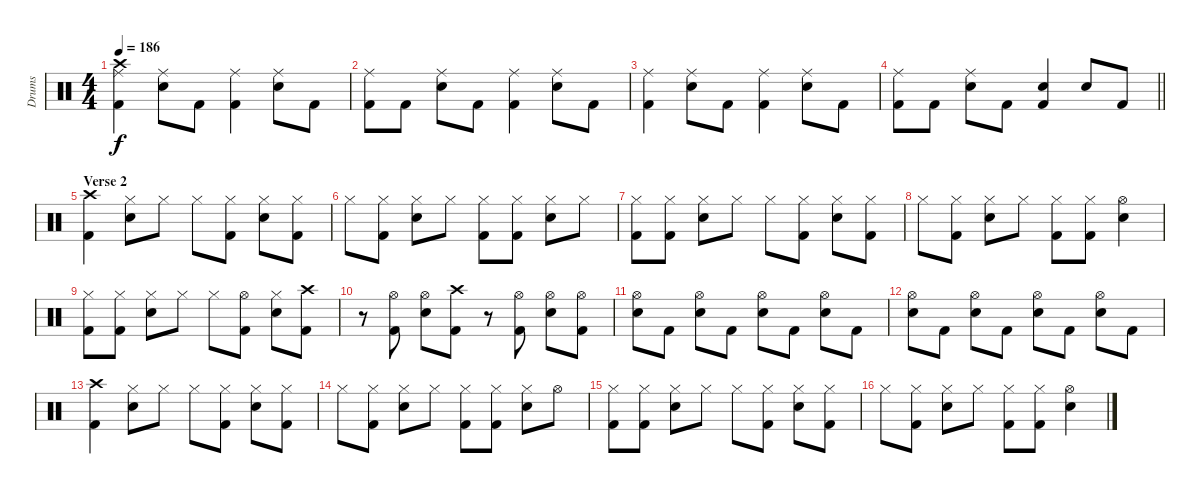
\track ("Drums" "Drums") {instrument percussion}
\staff {score}
\articulation defaults
\ts (4 4)
\tempo 186
\clef neutral
\ks c
("Crash high (hit)" "Ride (middle)" "Kick (hit) 2").4{dy f} ("Ride (middle)" "Snare (hit) 2").8 "Kick (hit) 2".8 ("Ride (middle)" "Kick (hit) 2").4 ("Ride (middle)" "Snare (hit) 2").8 "Kick (hit) 2".8 |
("Ride (middle)" "Kick (hit) 2").8 "Kick (hit) 2".8 ("Ride (middle)" "Snare (hit) 2").8 "Kick (hit) 2".8 ("Ride (middle)" "Kick (hit) 2").4 ("Ride (middle)" "Snare (hit) 2").8 "Kick (hit) 2".8 |
("Ride (middle)" "Kick (hit) 2").4 ("Ride (middle)" "Snare (hit) 2").8 "Kick (hit) 2".8 ("Ride (middle)" "Kick (hit) 2").4 ("Ride (middle)" "Snare (hit) 2").8 "Kick (hit) 2".8 |
\barLineRight lightlight
("Ride (middle)" "Kick (hit) 2").8 "Kick (hit) 2".8 ("Ride (middle)" "Snare (hit) 2").8 "Kick (hit) 2".8 ("Snare (hit) 2" "Kick (hit) 2").4 "Snare (hit) 2".8 "Kick (hit) 2".8 |
\section ("" "Verse 2")
("Crash high (hit)" "Kick (hit) 2").4 ("Hi-Hat (closed)" "Snare (hit) 2").8 "Hi-Hat (closed)".8 "Hi-Hat (closed)".8 ("Hi-Hat (closed)" "Kick (hit) 2").8 ("Hi-Hat (closed)" "Snare (hit) 2").8 ("Hi-Hat (closed)" "Kick (hit) 2").8 |
"Hi-Hat (closed)".8 ("Hi-Hat (closed)" "Kick (hit) 2").8 ("Hi-Hat (closed)" "Snare (hit) 2").8 "Hi-Hat (closed)".8 ("Hi-Hat (closed)" "Kick (hit) 2").8 ("Hi-Hat (closed)" "Kick (hit) 2").8 ("Hi-Hat (closed)" "Snare (hit) 2").8 "Hi-Hat (closed)".8 |
("Hi-Hat (closed)" "Kick (hit) 2").8 ("Hi-Hat (closed)" "Kick (hit) 2").8 ("Hi-Hat (closed)" "Snare (hit) 2").8 "Hi-Hat (closed)".8 "Hi-Hat (closed)".8 ("Hi-Hat (closed)" "Kick (hit) 2").8 ("Hi-Hat (closed)" "Snare (hit) 2").8 ("Hi-Hat (closed)" "Kick (hit) 2").8 |
"Hi-Hat (closed)".8 ("Hi-Hat (closed)" "Kick (hit) 2").8 ("Hi-Hat (closed)" "Snare (hit) 2").8 "Hi-Hat (closed)".8 ("Hi-Hat (closed)" "Kick (hit) 2").8 ("Hi-Hat (closed)" "Kick (hit) 2").8 ("Hi-Hat (open)" "Snare (hit) 2").4 |
("Hi-Hat (closed)" "Kick (hit) 2").8 ("Hi-Hat (closed)" "Kick (hit) 2").8 ("Hi-Hat (closed)" "Snare (hit) 2").8 "Hi-Hat (closed)".8 "Hi-Hat (closed)".8 ("Hi-Hat (open)" "Kick (hit) 2").8 ("Hi-Hat (closed)" "Snare (hit) 2").8 ("Crash high (hit)" "Kick (hit) 2").8 |
r.8 ("Hi-Hat (open)" "Kick (hit) 2").8 ("Hi-Hat (open)" "Snare (hit) 2").8 ("Crash high (hit)" "Kick (hit) 2").8 r.8 ("Hi-Hat (open)" "Kick (hit) 2").8 ("Hi-Hat (open)" "Snare (hit) 2").8 ("Hi-Hat (open)" "Kick (hit) 2").8 |
("Hi-Hat (open)" "Snare (hit) 2").8 "Kick (hit) 2".8 ("Hi-Hat (open)" "Snare (hit) 2").8 "Kick (hit) 2".8 ("Hi-Hat (open)" "Snare (hit) 2").8 "Kick (hit) 2".8 ("Hi-Hat (open)" "Snare (hit) 2").8 "Kick (hit) 2".8 |
("Hi-Hat (open)" "Snare (hit) 2").8 "Kick (hit) 2".8 ("Hi-Hat (open)" "Snare (hit) 2").8 "Kick (hit) 2".8 ("Hi-Hat (open)" "Snare (hit) 2").8 "Kick (hit) 2".8 ("Hi-Hat (open)" "Snare (hit) 2").8 "Kick (hit) 2".8 |
("Crash high (hit)" "Kick (hit) 2").4 ("Hi-Hat (closed)" "Snare (hit) 2").8 "Hi-Hat (closed)".8 "Hi-Hat (closed)".8 ("Hi-Hat (closed)" "Kick (hit) 2").8 ("Hi-Hat (closed)" "Snare (hit) 2").8 ("Hi-Hat (closed)" "Kick (hit) 2").8 |
"Hi-Hat (closed)".8 ("Hi-Hat (closed)" "Kick (hit) 2").8 ("Hi-Hat (closed)" "Snare (hit) 2").8 "Hi-Hat (closed)".8 ("Hi-Hat (closed)" "Kick (hit) 2").8 ("Hi-Hat (closed)" "Kick (hit) 2").8 ("Hi-Hat (closed)" "Snare (hit) 2").8 "Hi-Hat (open)".8 |
("Hi-Hat (closed)" "Kick (hit) 2").8 ("Hi-Hat (closed)" "Kick (hit) 2").8 ("Hi-Hat (closed)" "Snare (hit) 2").8 "Hi-Hat (closed)".8 "Hi-Hat (closed)".8 ("Hi-Hat (closed)" "Kick (hit) 2").8 ("Hi-Hat (closed)" "Snare (hit) 2").8 ("Hi-Hat (closed)" "Kick (hit) 2").8 |
"Hi-Hat (closed)".8 ("Hi-Hat (closed)" "Kick (hit) 2").8 ("Hi-Hat (closed)" "Snare (hit) 2").8 "Hi-Hat (closed)".8 ("Hi-Hat (closed)" "Kick (hit) 2").8 ("Hi-Hat (closed)" "Kick (hit) 2").8 ("Hi-Hat (open)" "Snare (hit) 2").4
